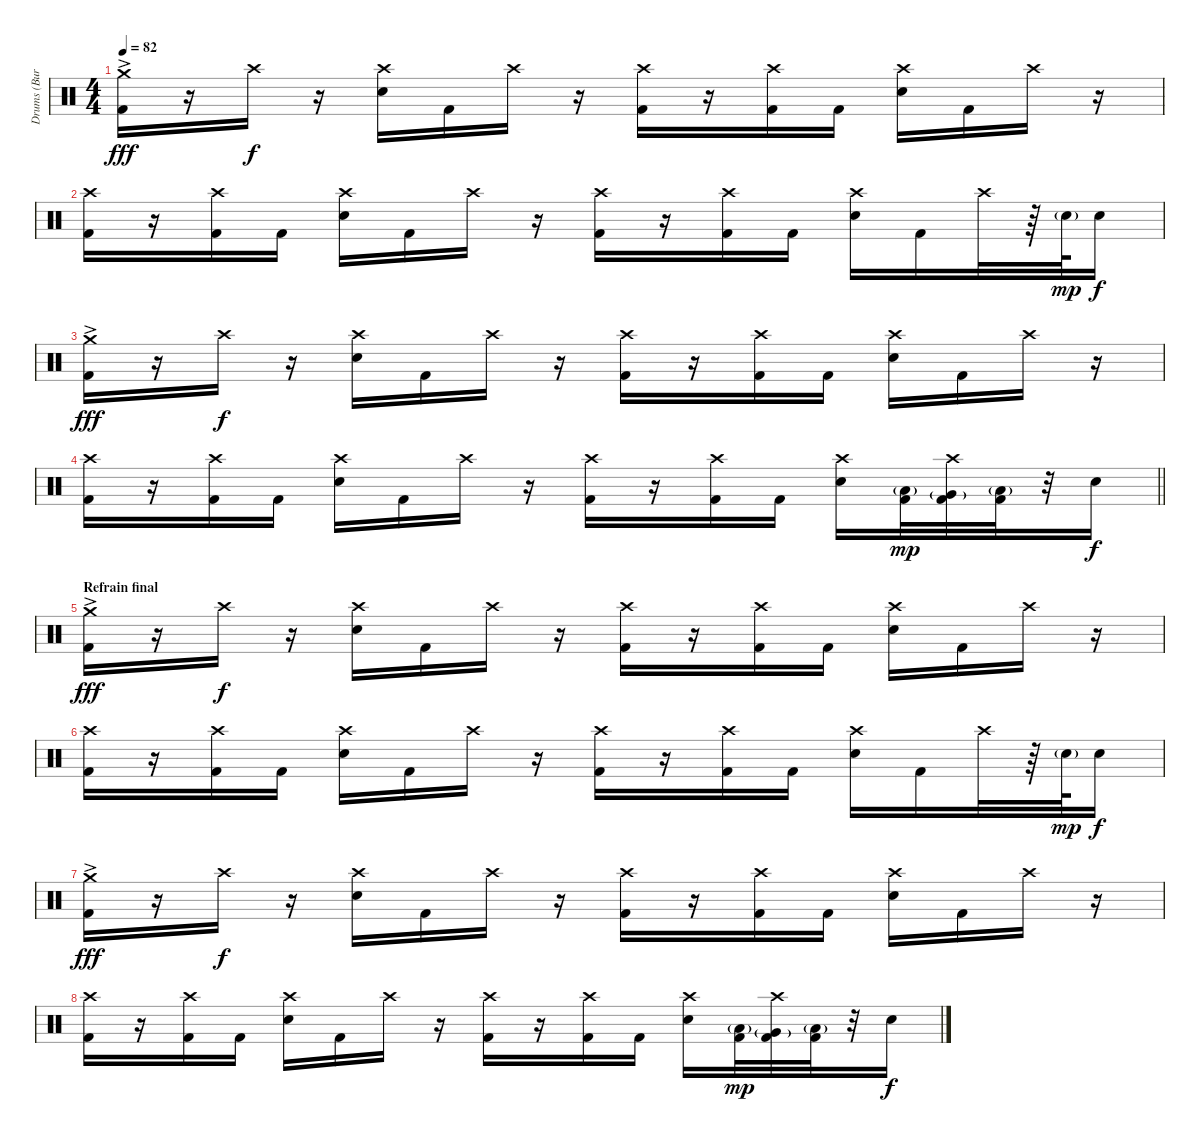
\track ("Drums (Burns)" "Drums (Bur") {instrument percussion}
\staff {score}
\articulation defaults
\ts (4 4)
\tempo 82
\clef neutral
\ks c
("Crash medium (hit)"{ac} "Kick (hit) 2").16{dy fff} r.16 "Crash high (hit)".16{dy f} r.16 ("Crash high (hit)" "Electric Snare (hit)").16 "Kick (hit) 2".16 "Crash high (hit)".16 r.16 ("Crash high (hit)" "Kick (hit) 2").16 r.16 ("Crash high (hit)" "Kick (hit) 2").16 "Kick (hit) 2".16 ("Crash high (hit)" "Electric Snare (hit)").16 "Kick (hit) 2".16 "Crash high (hit)".16 r.16 |
("Crash high (hit)" "Kick (hit) 2").16 r.16 ("Crash high (hit)" "Kick (hit) 2").16 "Kick (hit) 2".16 ("Crash high (hit)" "Electric Snare (hit)").16 "Kick (hit) 2".16 "Crash high (hit)".16 r.16 ("Crash high (hit)" "Kick (hit) 2").16 r.16 ("Crash high (hit)" "Kick (hit) 2").16 "Kick (hit) 2".16 ("Crash high (hit)" "Electric Snare (hit)").16 "Kick (hit) 2".16 "Crash high (hit)".32 r.64 "Electric Snare (hit)"{g}.64{dy mp} "Electric Snare (hit)".16{dy f} |
("Crash medium (hit)"{ac} "Kick (hit) 2").16{dy fff} r.16 "Crash high (hit)".16{dy f} r.16 ("Crash high (hit)" "Electric Snare (hit)").16 "Kick (hit) 2".16 "Crash high (hit)".16 r.16 ("Crash high (hit)" "Kick (hit) 2").16 r.16 ("Crash high (hit)" "Kick (hit) 2").16 "Kick (hit) 2".16 ("Crash high (hit)" "Electric Snare (hit)").16 "Kick (hit) 2".16 "Crash high (hit)".16 r.16 |
\barLineRight lightlight
("Crash high (hit)" "Kick (hit) 2").16 r.16 ("Crash high (hit)" "Kick (hit) 2").16 "Kick (hit) 2".16 ("Crash high (hit)" "Electric Snare (hit)").16 "Kick (hit) 2".16 "Crash high (hit)".16 r.16 ("Crash high (hit)" "Kick (hit) 2").16 r.16 ("Crash high (hit)" "Kick (hit) 2").16 "Kick (hit) 2".16 ("Crash high (hit)" "Electric Snare (hit)").16 ("Low Tom (hit)"{g} "Kick (hit) 2").32{dy mp} ("Crash high (hit)" "Very Low Tom (hit)"{g} "Kick (hit) 2").32 ("Low Floor Tom (hit)"{g} "Kick (hit) 2").32 r.32 "Electric Snare (hit)".16{dy f} |
\section ("" "Refrain final")
("Crash medium (hit)"{ac} "Kick (hit) 2").16{dy fff} r.16 "Crash high (hit)".16{dy f} r.16 ("Crash high (hit)" "Electric Snare (hit)").16 "Kick (hit) 2".16 "Crash high (hit)".16 r.16 ("Crash high (hit)" "Kick (hit) 2").16 r.16 ("Crash high (hit)" "Kick (hit) 2").16 "Kick (hit) 2".16 ("Crash high (hit)" "Electric Snare (hit)").16 "Kick (hit) 2".16 "Crash high (hit)".16 r.16 |
("Crash high (hit)" "Kick (hit) 2").16 r.16 ("Crash high (hit)" "Kick (hit) 2").16 "Kick (hit) 2".16 ("Crash high (hit)" "Electric Snare (hit)").16 "Kick (hit) 2".16 "Crash high (hit)".16 r.16 ("Crash high (hit)" "Kick (hit) 2").16 r.16 ("Crash high (hit)" "Kick (hit) 2").16 "Kick (hit) 2".16 ("Crash high (hit)" "Electric Snare (hit)").16 "Kick (hit) 2".16 "Crash high (hit)".32 r.64 "Electric Snare (hit)"{g}.64{dy mp} "Electric Snare (hit)".16{dy f} |
("Crash medium (hit)"{ac} "Kick (hit) 2").16{dy fff} r.16 "Crash high (hit)".16{dy f} r.16 ("Crash high (hit)" "Electric Snare (hit)").16 "Kick (hit) 2".16 "Crash high (hit)".16 r.16 ("Crash high (hit)" "Kick (hit) 2").16 r.16 ("Crash high (hit)" "Kick (hit) 2").16 "Kick (hit) 2".16 ("Crash high (hit)" "Electric Snare (hit)").16 "Kick (hit) 2".16 "Crash high (hit)".16 r.16 |
("Crash high (hit)" "Kick (hit) 2").16 r.16 ("Crash high (hit)" "Kick (hit) 2").16 "Kick (hit) 2".16 ("Crash high (hit)" "Electric Snare (hit)").16 "Kick (hit) 2".16 "Crash high (hit)".16 r.16 ("Crash high (hit)" "Kick (hit) 2").16 r.16 ("Crash high (hit)" "Kick (hit) 2").16 "Kick (hit) 2".16 ("Crash high (hit)" "Electric Snare (hit)").16 ("Low Tom (hit)"{g} "Kick (hit) 2").32{dy mp} ("Crash high (hit)" "Very Low Tom (hit)"{g} "Kick (hit) 2").32 ("Low Floor Tom (hit)"{g} "Kick (hit) 2").32 r.32 "Electric Snare (hit)".16{dy f}
